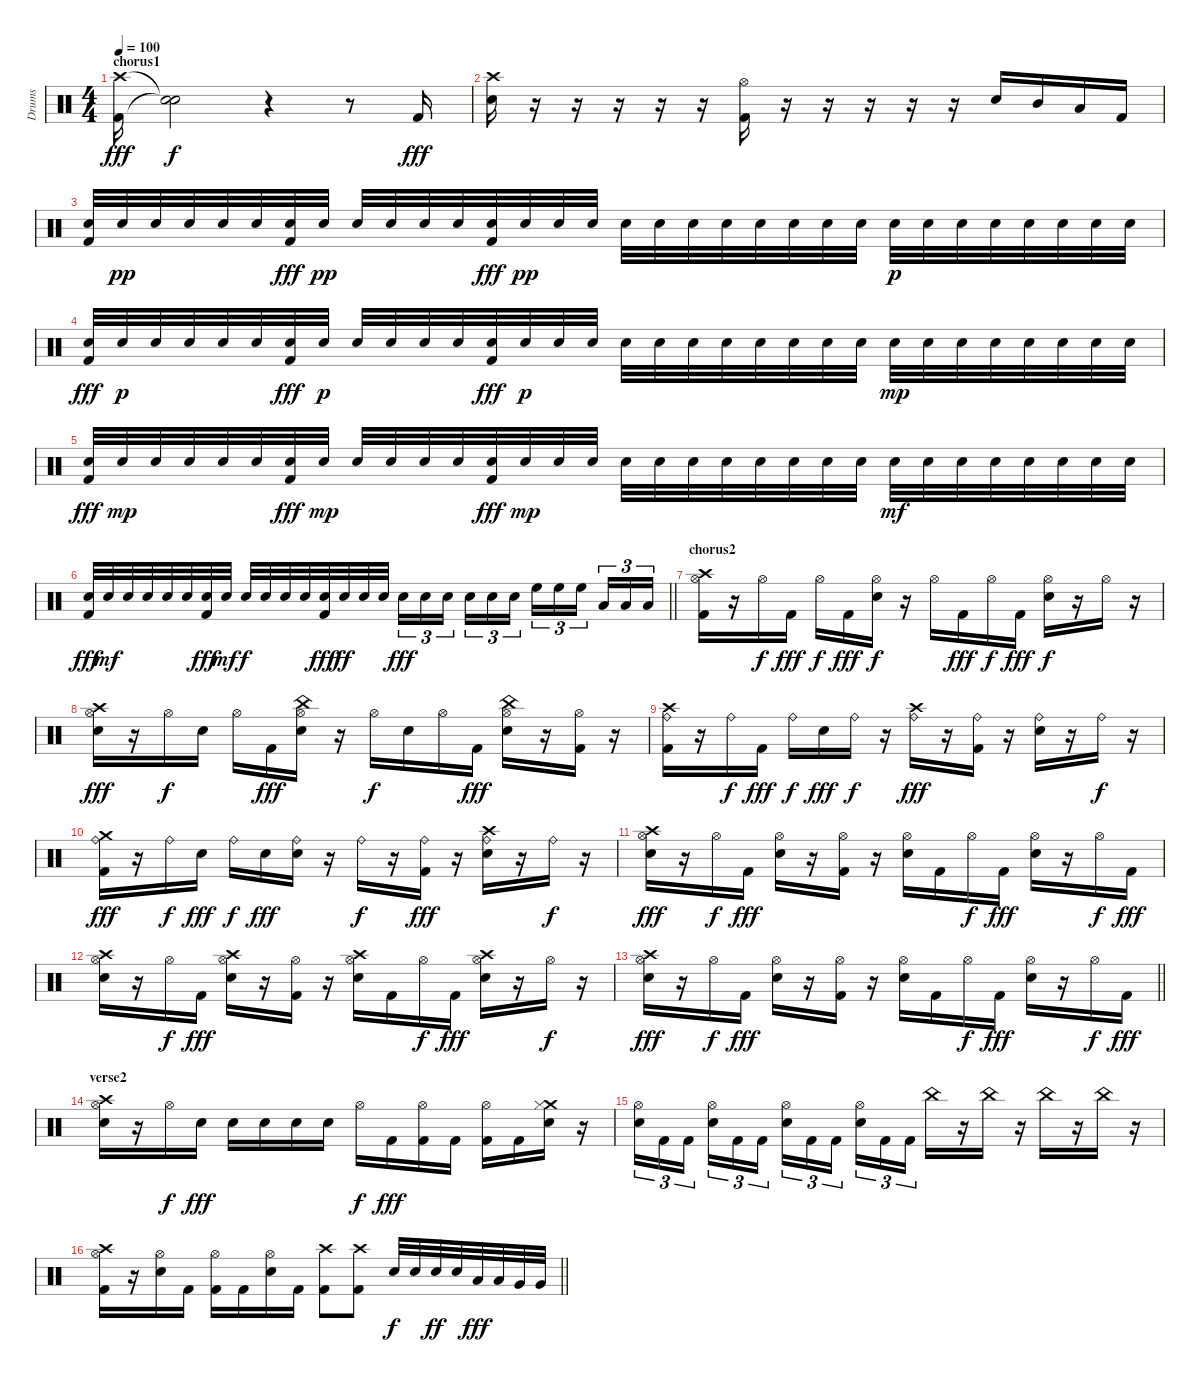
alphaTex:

\track ("Drums" "Drums") {instrument percussion}
\staff {score}
\articulation defaults
\ts (4 4)
\section ("" "chorus1")
\tempo 100
\clef neutral
\ks c
("Crash high (hit)" "Kick (hit) 2").16{dy fff} ("Snare (hit)"{t} "Snare (hit)"{t}).2{dy f} r.4 r.8 "Kick (hit) 2".16{dy fff} |
("Crash high (hit)" "Snare (hit) 2").16 r.16 r.16 r.16 r.16 r.16 ("Hi-Hat (open)" "Kick (hit) 2").16 r.16 r.16 r.16 r.16 r.16 "Snare (hit) 2".16 "Mid Tom (hit)".16 "Low Floor Tom (hit)".16 "Kick (hit) 2".16 |
("Snare (hit) 2" "Kick (hit) 2").32 "Snare (hit) 2".32{dy pp} "Snare (hit) 2".32 "Snare (hit) 2".32 "Snare (hit) 2".32 "Snare (hit) 2".32 ("Snare (hit) 2" "Kick (hit) 2").32{dy fff} "Snare (hit) 2".32{dy pp} "Snare (hit) 2".32 "Snare (hit) 2".32 "Snare (hit) 2".32 "Snare (hit) 2".32 ("Snare (hit) 2" "Kick (hit) 2").32{dy fff} "Snare (hit) 2".32{dy pp} "Snare (hit) 2".32 "Snare (hit) 2".32 "Snare (hit) 2".32 "Snare (hit) 2".32 "Snare (hit) 2".32 "Snare (hit) 2".32 "Snare (hit) 2".32 "Snare (hit) 2".32 "Snare (hit) 2".32 "Snare (hit) 2".32 "Snare (hit) 2".32{dy p} "Snare (hit) 2".32 "Snare (hit) 2".32 "Snare (hit) 2".32 "Snare (hit) 2".32 "Snare (hit) 2".32 "Snare (hit) 2".32 "Snare (hit) 2".32 |
("Snare (hit) 2" "Kick (hit) 2").32{dy fff} "Snare (hit) 2".32{dy p} "Snare (hit) 2".32 "Snare (hit) 2".32 "Snare (hit) 2".32 "Snare (hit) 2".32 ("Snare (hit) 2" "Kick (hit) 2").32{dy fff} "Snare (hit) 2".32{dy p} "Snare (hit) 2".32 "Snare (hit) 2".32 "Snare (hit) 2".32 "Snare (hit) 2".32 ("Snare (hit) 2" "Kick (hit) 2").32{dy fff} "Snare (hit) 2".32{dy p} "Snare (hit) 2".32 "Snare (hit) 2".32 "Snare (hit) 2".32 "Snare (hit) 2".32 "Snare (hit) 2".32 "Snare (hit) 2".32 "Snare (hit) 2".32 "Snare (hit) 2".32 "Snare (hit) 2".32 "Snare (hit) 2".32 "Snare (hit) 2".32{dy mp} "Snare (hit) 2".32 "Snare (hit) 2".32 "Snare (hit) 2".32 "Snare (hit) 2".32 "Snare (hit) 2".32 "Snare (hit) 2".32 "Snare (hit) 2".32 |
("Snare (hit) 2" "Kick (hit) 2").32{dy fff} "Snare (hit) 2".32{dy mp} "Snare (hit) 2".32 "Snare (hit) 2".32 "Snare (hit) 2".32 "Snare (hit) 2".32 ("Snare (hit) 2" "Kick (hit) 2").32{dy fff} "Snare (hit) 2".32{dy mp} "Snare (hit) 2".32 "Snare (hit) 2".32 "Snare (hit) 2".32 "Snare (hit) 2".32 ("Snare (hit) 2" "Kick (hit) 2").32{dy fff} "Snare (hit) 2".32{dy mp} "Snare (hit) 2".32 "Snare (hit) 2".32 "Snare (hit) 2".32 "Snare (hit) 2".32 "Snare (hit) 2".32 "Snare (hit) 2".32 "Snare (hit) 2".32 "Snare (hit) 2".32 "Snare (hit) 2".32 "Snare (hit) 2".32 "Snare (hit) 2".32{dy mf} "Snare (hit) 2".32 "Snare (hit) 2".32 "Snare (hit) 2".32 "Snare (hit) 2".32 "Snare (hit) 2".32 "Snare (hit) 2".32 "Snare (hit) 2".32 |
\barLineRight lightlight
("Snare (hit) 2" "Kick (hit) 2").32{dy fff} "Snare (hit) 2".32{dy mf} "Snare (hit) 2".32 "Snare (hit) 2".32 "Snare (hit) 2".32 "Snare (hit) 2".32 ("Snare (hit) 2" "Kick (hit) 2").32{dy fff} "Snare (hit) 2".32{dy mf} "Snare (hit) 2".32{dy f} "Snare (hit) 2".32 "Snare (hit) 2".32 "Snare (hit) 2".32 ("Snare (hit) 2" "Kick (hit) 2").32{dy fff} "Snare (hit) 2".32{dy ff} "Snare (hit) 2".32 "Snare (hit) 2".32 "Snare (hit) 2".16{tu (3 2) dy fff} "Snare (hit) 2".16{tu (3 2)} "Snare (hit) 2".16{tu (3 2) beam splitsecondary} "Snare (hit) 2".16{tu (3 2)} "Snare (hit) 2".16{tu (3 2)} "Snare (hit) 2".16{tu (3 2)} "High Floor Tom (hit)".16{tu (3 2)} "High Floor Tom (hit)".16{tu (3 2)} "High Floor Tom (hit)".16{tu (3 2) beam splitsecondary} "Low Floor Tom (hit)".16{tu (3 2)} "Low Floor Tom (hit)".16{tu (3 2)} "Low Floor Tom (hit)".16{tu (3 2)} |
\section ("" "chorus2")
("Crash high (hit)" "Hi-Hat (open)" "Kick (hit) 2").16 r.16 "Hi-Hat (open)".16{dy f} "Kick (hit) 2".16{dy fff} "Hi-Hat (open)".16{dy f} "Kick (hit) 2".16{dy fff} ("Snare (hit) 2" "Hi-Hat (open)").16{dy f} r.16 "Hi-Hat (open)".16 "Kick (hit) 2".16{dy fff} "Hi-Hat (open)".16{dy f} "Kick (hit) 2".16{dy fff} ("Snare (hit) 2" "Hi-Hat (open)").16{dy f} r.16 "Hi-Hat (open)".16 r.16 |
("Crash high (hit)" "Snare (hit) 2" "Hi-Hat (open)").16{dy fff} r.16 "Hi-Hat (open)".16{dy f} "Snare (hit) 2".16 "Hi-Hat (open)".16 "Kick (hit) 2".16{dy fff} ("China (hit)" "Snare (hit) 2" "Hi-Hat (open)").16 r.16 "Hi-Hat (open)".16{dy f} "Snare (hit) 2".16 "Hi-Hat (open)".16 "Kick (hit) 2".16{dy fff} ("China (hit)" "Snare (hit) 2" "Hi-Hat (open)").16 r.16 ("Hi-Hat (open)" "Kick (hit) 2").16 r.16 |
("Crash high (hit)" "Ride (bell)" "Kick (hit) 2").16 r.16 "Ride (bell)".16{dy f} "Kick (hit) 2".16{dy fff} "Ride (bell)".16{dy f} "Snare (hit) 2".16{dy fff} "Ride (bell)".16{dy f} r.16 ("Crash high (hit)" "Ride (bell)").16{dy fff} r.16 ("Ride (bell)" "Kick (hit) 2").16 r.16 ("Ride (bell)" "Snare (hit) 2").16 r.16 "Ride (bell)".16{dy f} r.16 |
("Crash medium (hit)" "Ride (bell)" "Kick (hit) 2").16{dy fff} r.16 "Ride (bell)".16{dy f} "Snare (hit) 2".16{dy fff} "Ride (bell)".16{dy f} "Snare (hit) 2".16{dy fff} ("Ride (bell)" "Snare (hit) 2").16 r.16 "Ride (bell)".16{dy f} r.16 ("Ride (bell)" "Kick (hit) 2").16{dy fff} r.16 ("Crash high (hit)" "Ride (bell)" "Snare (hit) 2").16 r.16 "Ride (bell)".16{dy f} r.16 |
("Crash high (hit)" "Snare (hit) 2" "Hi-Hat (open)").16{dy fff} r.16 "Hi-Hat (open)".16{dy f} "Kick (hit) 2".16{dy fff} ("Snare (hit) 2" "Hi-Hat (open)").16 r.16 ("Hi-Hat (open)" "Kick (hit) 2").16 r.16 ("Snare (hit) 2" "Hi-Hat (open)").16 "Kick (hit) 2".16 "Hi-Hat (open)".16{dy f} "Kick (hit) 2".16{dy fff} ("Snare (hit) 2" "Hi-Hat (open)").16 r.16 "Hi-Hat (open)".16{dy f} "Kick (hit) 2".16{dy fff} |
("Crash high (hit)" "Snare (hit) 2" "Hi-Hat (open)").16 r.16 "Hi-Hat (open)".16{dy f} "Kick (hit) 2".16{dy fff} ("Crash high (hit)" "Snare (hit) 2" "Hi-Hat (open)").16 r.16 ("Hi-Hat (open)" "Kick (hit) 2").16 r.16 ("Crash high (hit)" "Snare (hit) 2" "Hi-Hat (open)").16 "Kick (hit) 2".16 "Hi-Hat (open)".16{dy f} "Kick (hit) 2".16{dy fff} ("Crash high (hit)" "Snare (hit) 2" "Hi-Hat (open)").16 r.16 "Hi-Hat (open)".16{dy f} r.16 |
\barLineRight lightlight
("Crash high (hit)" "Snare (hit) 2" "Hi-Hat (open)").16{dy fff} r.16 "Hi-Hat (open)".16{dy f} "Kick (hit) 2".16{dy fff} ("Snare (hit) 2" "Hi-Hat (open)").16 r.16 ("Hi-Hat (open)" "Kick (hit) 2").16 r.16 ("Snare (hit) 2" "Hi-Hat (open)").16 "Kick (hit) 2".16 "Hi-Hat (open)".16{dy f} "Kick (hit) 2".16{dy fff} ("Snare (hit) 2" "Hi-Hat (open)").16 r.16 "Hi-Hat (open)".16{dy f} "Kick (hit) 2".16{dy fff} |
\section ("" "verse2")
("Crash high (hit)" "Hi-Hat (open)" "Snare (hit) 2").16 r.16 "Hi-Hat (open)".16{dy f} "Snare (hit) 2".16{dy fff} "Snare (hit) 2".16 "Snare (hit) 2".16 "Snare (hit) 2".16 "Snare (hit) 2".16 "Hi-Hat (open)".16{dy f} "Kick (hit) 2".16{dy fff} ("Hi-Hat (open)" "Kick (hit) 2").16 "Kick (hit) 2".16 ("Hi-Hat (open)" "Kick (hit) 2").16 "Kick (hit) 2".16 ("Crash medium (hit)" "Hi-Hat (closed)" "Snare (hit) 2").16 r.16 |
("Snare (hit) 2" "Hi-Hat (open)").16{tu (3 2)} "Kick (hit) 2".16{tu (3 2)} "Kick (hit) 2".16{tu (3 2) beam splitsecondary} ("Snare (hit) 2" "Hi-Hat (open)").16{tu (3 2)} "Kick (hit) 2".16{tu (3 2)} "Kick (hit) 2".16{tu (3 2)} ("Snare (hit) 2" "Hi-Hat (open)").16{tu (3 2)} "Kick (hit) 2".16{tu (3 2)} "Kick (hit) 2".16{tu (3 2) beam splitsecondary} ("Snare (hit) 2" "Hi-Hat (open)").16{tu (3 2)} "Kick (hit) 2".16{tu (3 2)} "Kick (hit) 2".16{tu (3 2)} "China (hit)".16 r.16 "China (hit)".16 r.16 "China (hit)".16 r.16 "China (hit)".16 r.16 |
\barLineRight lightlight
("Crash high (hit)" "Hi-Hat (open)" "Kick (hit) 2").16 r.16 ("Hi-Hat (open)" "Snare (hit) 2").16 "Kick (hit) 2".16 ("Hi-Hat (open)" "Kick (hit) 2").16 "Kick (hit) 2".16 ("Hi-Hat (open)" "Snare (hit) 2").16 "Kick (hit) 2".16 ("Crash high (hit)" "Kick (hit) 2").8 ("Crash high (hit)" "Kick (hit) 2").8 "Snare (hit) 2".32{dy f} "Snare (hit) 2".32 "Snare (hit) 2".32{dy ff} "Snare (hit) 2".32 "Low Tom (hit)".32{dy fff} "Low Tom (hit)".32 "Very Low Tom (hit)".32 "Very Low Tom (hit)".32
